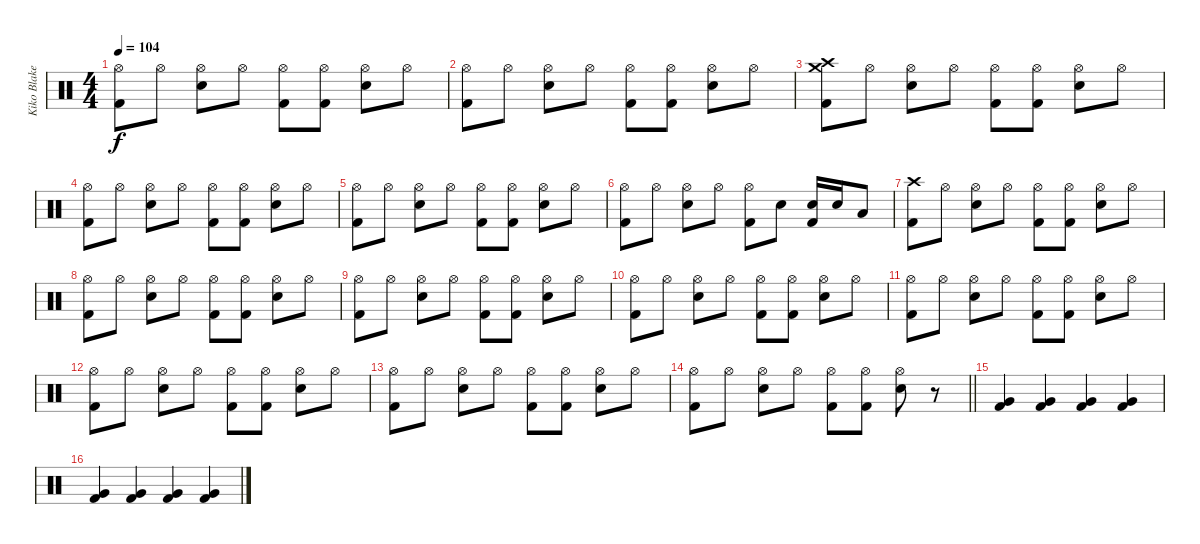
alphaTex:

\track ("Kiko Blake" "Kiko Blake") {instrument percussion}
\staff
\articulation defaults
\ts (4 4)
\tempo 104
\clef neutral
\ks c
("Hi-Hat (open)" "Kick (hit) 2").8{dy f} "Hi-Hat (open)".8 ("Hi-Hat (open)" "Snare (hit) 2").8 "Hi-Hat (open)".8 ("Hi-Hat (open)" "Kick (hit) 2").8 ("Hi-Hat (open)" "Kick (hit) 2").8 ("Hi-Hat (open)" "Snare (hit) 2").8 "Hi-Hat (open)".8 |
("Hi-Hat (open)" "Kick (hit) 2").8 "Hi-Hat (open)".8 ("Hi-Hat (open)" "Snare (hit) 2").8 "Hi-Hat (open)".8 ("Hi-Hat (open)" "Kick (hit) 2").8 ("Hi-Hat (open)" "Kick (hit) 2").8 ("Hi-Hat (open)" "Snare (hit) 2").8 "Hi-Hat (open)".8 |
("Crash medium (hit)" "Crash high (hit)" "Kick (hit) 2").8 "Hi-Hat (open)".8 ("Hi-Hat (open)" "Snare (hit) 2").8 "Hi-Hat (open)".8 ("Hi-Hat (open)" "Kick (hit) 2").8 ("Hi-Hat (open)" "Kick (hit) 2").8 ("Hi-Hat (open)" "Snare (hit) 2").8 "Hi-Hat (open)".8 |
("Hi-Hat (open)" "Kick (hit) 2").8 "Hi-Hat (open)".8 ("Hi-Hat (open)" "Snare (hit) 2").8 "Hi-Hat (open)".8 ("Hi-Hat (open)" "Kick (hit) 2").8 ("Hi-Hat (open)" "Kick (hit) 2").8 ("Hi-Hat (open)" "Snare (hit) 2").8 "Hi-Hat (open)".8 |
("Hi-Hat (open)" "Kick (hit) 2").8 "Hi-Hat (open)".8 ("Hi-Hat (open)" "Snare (hit) 2").8 "Hi-Hat (open)".8 ("Hi-Hat (open)" "Kick (hit) 2").8 ("Hi-Hat (open)" "Kick (hit) 2").8 ("Hi-Hat (open)" "Snare (hit) 2").8 "Hi-Hat (open)".8 |
("Hi-Hat (open)" "Kick (hit) 2").8 "Hi-Hat (open)".8 ("Hi-Hat (open)" "Snare (hit) 2").8 "Hi-Hat (open)".8 ("Hi-Hat (open)" "Kick (hit) 2").8 "Snare (hit) 2".8 ("Snare (hit) 2" "Kick (hit) 2").16 "Snare (hit) 2".16 "Low Tom (hit)".8 |
("Crash high (hit)" "Kick (hit) 2").8 "Hi-Hat (open)".8 ("Hi-Hat (open)" "Snare (hit) 2").8 "Hi-Hat (open)".8 ("Hi-Hat (open)" "Kick (hit) 2").8 ("Hi-Hat (open)" "Kick (hit) 2").8 ("Hi-Hat (open)" "Snare (hit) 2").8 "Hi-Hat (open)".8 |
("Hi-Hat (open)" "Kick (hit) 2").8 "Hi-Hat (open)".8 ("Hi-Hat (open)" "Snare (hit) 2").8 "Hi-Hat (open)".8 ("Hi-Hat (open)" "Kick (hit) 2").8 ("Hi-Hat (open)" "Kick (hit) 2").8 ("Hi-Hat (open)" "Snare (hit) 2").8 "Hi-Hat (open)".8 |
("Hi-Hat (open)" "Kick (hit) 2").8 "Hi-Hat (open)".8 ("Hi-Hat (open)" "Snare (hit) 2").8 "Hi-Hat (open)".8 ("Hi-Hat (open)" "Kick (hit) 2").8 ("Hi-Hat (open)" "Kick (hit) 2").8 ("Hi-Hat (open)" "Snare (hit) 2").8 "Hi-Hat (open)".8 |
("Hi-Hat (open)" "Kick (hit) 2").8 "Hi-Hat (open)".8 ("Hi-Hat (open)" "Snare (hit) 2").8 "Hi-Hat (open)".8 ("Hi-Hat (open)" "Kick (hit) 2").8 ("Hi-Hat (open)" "Kick (hit) 2").8 ("Hi-Hat (open)" "Snare (hit) 2").8 "Hi-Hat (open)".8 |
("Hi-Hat (open)" "Kick (hit) 2").8 "Hi-Hat (open)".8 ("Hi-Hat (open)" "Snare (hit) 2").8 "Hi-Hat (open)".8 ("Hi-Hat (open)" "Kick (hit) 2").8 ("Hi-Hat (open)" "Kick (hit) 2").8 ("Hi-Hat (open)" "Snare (hit) 2").8 "Hi-Hat (open)".8 |
("Hi-Hat (open)" "Kick (hit) 2").8 "Hi-Hat (open)".8 ("Hi-Hat (open)" "Snare (hit) 2").8 "Hi-Hat (open)".8 ("Hi-Hat (open)" "Kick (hit) 2").8 ("Hi-Hat (open)" "Kick (hit) 2").8 ("Hi-Hat (open)" "Snare (hit) 2").8 "Hi-Hat (open)".8 |
("Hi-Hat (open)" "Kick (hit) 2").8 "Hi-Hat (open)".8 ("Hi-Hat (open)" "Snare (hit) 2").8 "Hi-Hat (open)".8 ("Hi-Hat (open)" "Kick (hit) 2").8 ("Hi-Hat (open)" "Kick (hit) 2").8 ("Hi-Hat (open)" "Snare (hit) 2").8 "Hi-Hat (open)".8 |
\barLineRight lightlight
("Hi-Hat (open)" "Kick (hit) 2").8 "Hi-Hat (open)".8 ("Hi-Hat (open)" "Snare (hit) 2").8 "Hi-Hat (open)".8 ("Hi-Hat (open)" "Kick (hit) 2").8 ("Hi-Hat (open)" "Kick (hit) 2").8 ("Hi-Hat (open)" "Snare (hit) 2").8 r.8 |
("Very Low Tom (hit)" "Kick (hit) 2").4 ("Very Low Tom (hit)" "Kick (hit) 2").4 ("Very Low Tom (hit)" "Kick (hit) 2").4 ("Very Low Tom (hit)" "Kick (hit) 2").4 |
("Very Low Tom (hit)" "Kick (hit) 2").4 ("Very Low Tom (hit)" "Kick (hit) 2").4 ("Very Low Tom (hit)" "Kick (hit) 2").4 ("Very Low Tom (hit)" "Kick (hit) 2").4
